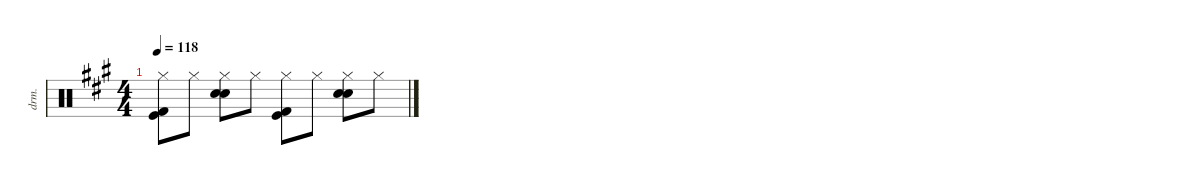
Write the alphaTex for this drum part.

\defaultSystemsLayout 4
\hideDynamics
\bracketExtendMode nobrackets
\otherSystemsTrackNameOrientation horizontal
\track ("drums" "drm.") {instrument percussion}
\staff {score}
\articulation defaults
\ts (4 4)
\tempo 118
\clef neutral
\ks f#minor
("Hi-Hat (closed)"{acc forcenatural} "Kick (hit)"{acc forcenatural} "Kick (hit) 2"{acc forcenatural}).8{dy f} "Hi-Hat (closed)"{acc forcenatural}.8{dy mf} ("Hi-Hat (closed)"{acc forcenatural} "Hand Clap (hit)"{acc forcenatural} "Snare (hit) 2"{acc forcenatural}).8{dy f} "Hi-Hat (closed)"{acc forcenatural}.8{dy mf} ("Hi-Hat (closed)"{acc forcenatural} "Kick (hit)"{acc forcenatural} "Kick (hit) 2"{acc forcenatural}).8{dy f} "Hi-Hat (closed)"{acc forcenatural}.8{dy mf} ("Hi-Hat (closed)"{acc forcenatural} "Hand Clap (hit)"{acc forcenatural} "Snare (hit) 2"{acc forcenatural}).8{dy f} "Hi-Hat (closed)"{acc forcenatural}.8{dy mf}
